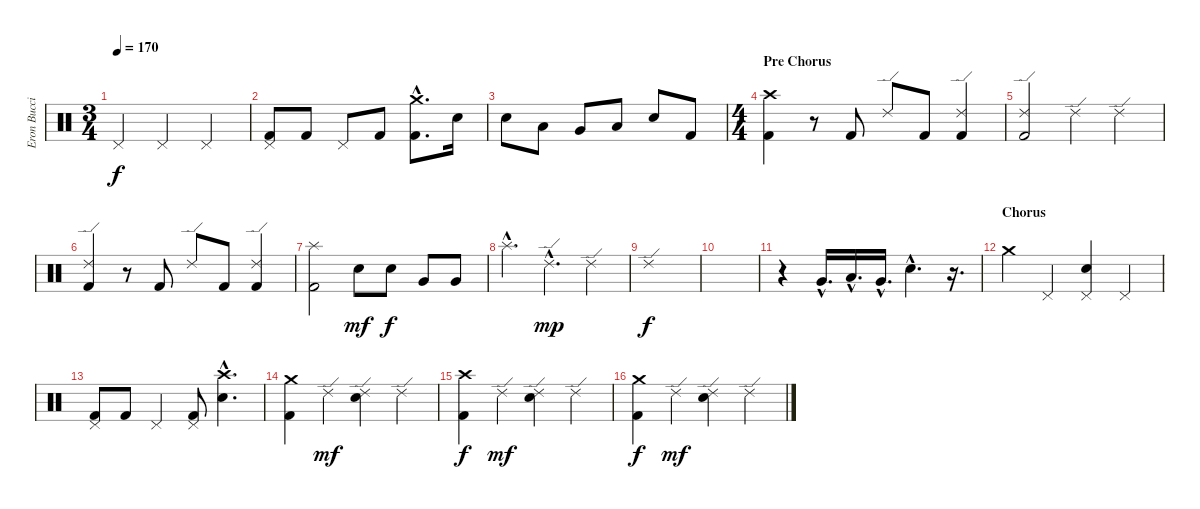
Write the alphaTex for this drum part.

\track ("Eron Bucciarelli (Drums)" "Eron Bucci") {instrument percussion}
\staff {score}
\articulation defaults
\ts (3 4)
\tempo 170
\clef neutral
\ks c "Pedal Hi-Hat (hit)".4{dy f} "Pedal Hi-Hat (hit)".4 "Pedal Hi-Hat (hit)".4
|
("Pedal Hi-Hat (hit)" "Kick (hit) 2").8 "Kick (hit) 2".8 "Pedal Hi-Hat (hit)".8 "Kick (hit) 2".8 ("Crash medium (hit)"{hac} "Kick (hit) 2"{hac}).8{d} "Snare (hit) 2".16 |
"Snare (hit) 2".8 "Low Tom (hit)".8 "Very Low Tom (hit)".8 "Low Floor Tom (hit)".8 "Snare (hit) 2".8 "Kick (hit) 2".8 |
\ts (4 4)
\section ("" "Pre Chorus")
("Crash high (hit)" "Kick (hit) 2").4 r.8 "Kick (hit) 2".8 "Ride (edge) 2".8 "Kick (hit) 2".8 ("Ride (edge) 2" "Kick (hit) 2").4 |
("Ride (edge) 2" "Kick (hit) 2").2 "Ride (edge) 2".4 "Ride (edge) 2".4 |
("Ride (edge) 2" "Kick (hit) 2").4 r.8 "Kick (hit) 2".8 "Ride (edge) 2".8 "Kick (hit) 2".8 ("Ride (edge) 2" "Kick (hit) 2").4 |
("Splash (hit)" "Kick (hit) 2").2 "Snare (hit) 2".8{dy mf} "Snare (hit) 2".8{dy f} "Very Low Tom (hit)".8 "Very Low Tom (hit)".8 |
"Splash (hit)"{hac}.4{d} "Ride (edge) 2"{hac}.4{d dy mp} "Ride (edge) 2".4 |
"Ride (edge) 2".1{dy f} |
|
r.4 "Very Low Tom (hit)"{hac}.16{d} "Low Floor Tom (hit)"{hac}.16{d} "Very Low Tom (hit)"{hac}.16{d} "Snare (hit) 2"{hac}.4{d} r.16{d} |
\section ("" "Chorus")
"Crash medium (hit)".4 "Pedal Hi-Hat (hit)".4 ("Pedal Hi-Hat (hit)" "Snare (hit) 2").4 "Pedal Hi-Hat (hit)".4 |
("Pedal Hi-Hat (hit)" "Kick (hit) 2").8 "Kick (hit) 2".8 "Pedal Hi-Hat (hit)".4 ("Pedal Hi-Hat (hit)" "Kick (hit) 2").8 ("Crash high (hit)"{hac} "Snare (hit) 2"{hac}).4{d} |
("Crash medium (hit)" "Kick (hit) 2").4 "Ride (edge) 2".4{dy mf} ("Ride (edge) 2" "Snare (hit) 2").4 "Ride (edge) 2".4 |
("Crash high (hit)" "Kick (hit) 2").4{dy f} "Ride (edge) 2".4{dy mf} ("Ride (edge) 2" "Snare (hit) 2").4 "Ride (edge) 2".4 |
("Crash medium (hit)" "Kick (hit) 2").4{dy f} "Ride (edge) 2".4{dy mf} ("Ride (edge) 2" "Snare (hit) 2").4 "Ride (edge) 2".4
